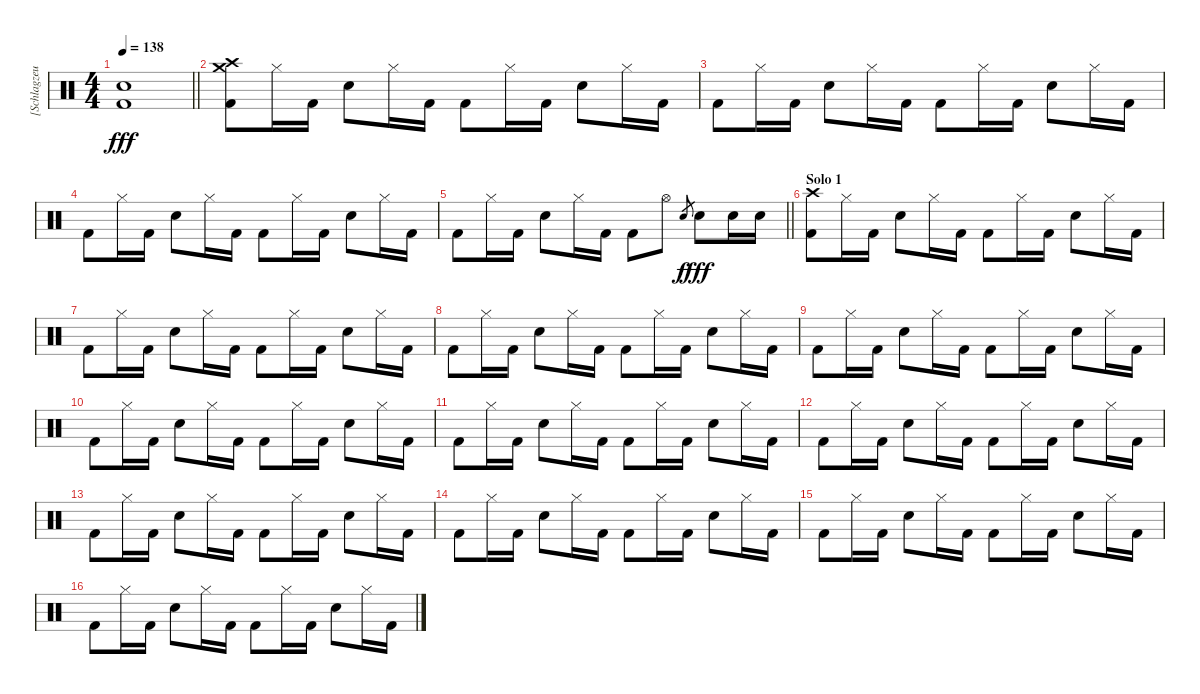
\track ("[Schlagzeug]" "[Schlagzeu") {instrument percussion}
\staff {score}
\articulation defaults
\ts (4 4)
\tempo 138
\clef neutral
\barLineRight lightlight
\ks c
("Electric Snare (hit)" "Kick (hit) 2").1{dy fff} |
("Crash high (hit)" "Crash medium (hit)" "Kick (hit) 2").8 "Hi-Hat (closed)".16 "Kick (hit) 2".16 "Electric Snare (hit)".8 "Hi-Hat (closed)".16 "Kick (hit) 2".16 "Kick (hit) 2".8 "Hi-Hat (closed)".16 "Kick (hit) 2".16 "Electric Snare (hit)".8 "Hi-Hat (closed)".16 "Kick (hit) 2".16 |
"Kick (hit) 2".8 "Hi-Hat (closed)".16 "Kick (hit) 2".16 "Electric Snare (hit)".8 "Hi-Hat (closed)".16 "Kick (hit) 2".16 "Kick (hit) 2".8 "Hi-Hat (closed)".16 "Kick (hit) 2".16 "Electric Snare (hit)".8 "Hi-Hat (closed)".16 "Kick (hit) 2".16 |
"Kick (hit) 2".8 "Hi-Hat (closed)".16 "Kick (hit) 2".16 "Electric Snare (hit)".8 "Hi-Hat (closed)".16 "Kick (hit) 2".16 "Kick (hit) 2".8 "Hi-Hat (closed)".16 "Kick (hit) 2".16 "Electric Snare (hit)".8 "Hi-Hat (closed)".16 "Kick (hit) 2".16 |
\barLineRight lightlight "Kick (hit) 2".8 "Hi-Hat (closed)".16 "Kick (hit) 2".16 "Electric Snare (hit)".8 "Hi-Hat (closed)".16 "Kick (hit) 2".16 "Kick (hit) 2".8 "Hi-Hat (open)".8 "Electric Snare (hit)".8{gr dy f} "Electric Snare (hit)".8{dy fff} "Electric Snare (hit)".16 "Electric Snare (hit)".16
|
\section ("" "Solo 1")
("Crash high (hit)" "Kick (hit) 2").8 "Hi-Hat (closed)".16 "Kick (hit) 2".16 "Electric Snare (hit)".8 "Hi-Hat (closed)".16 "Kick (hit) 2".16 "Kick (hit) 2".8 "Hi-Hat (closed)".16 "Kick (hit) 2".16 "Electric Snare (hit)".8 "Hi-Hat (closed)".16 "Kick (hit) 2".16 |
"Kick (hit) 2".8 "Hi-Hat (closed)".16 "Kick (hit) 2".16 "Electric Snare (hit)".8 "Hi-Hat (closed)".16 "Kick (hit) 2".16 "Kick (hit) 2".8 "Hi-Hat (closed)".16 "Kick (hit) 2".16 "Electric Snare (hit)".8 "Hi-Hat (closed)".16 "Kick (hit) 2".16 |
"Kick (hit) 2".8 "Hi-Hat (closed)".16 "Kick (hit) 2".16 "Electric Snare (hit)".8 "Hi-Hat (closed)".16 "Kick (hit) 2".16 "Kick (hit) 2".8 "Hi-Hat (closed)".16 "Kick (hit) 2".16 "Electric Snare (hit)".8 "Hi-Hat (closed)".16 "Kick (hit) 2".16 |
"Kick (hit) 2".8 "Hi-Hat (closed)".16 "Kick (hit) 2".16 "Electric Snare (hit)".8 "Hi-Hat (closed)".16 "Kick (hit) 2".16 "Kick (hit) 2".8 "Hi-Hat (closed)".16 "Kick (hit) 2".16 "Electric Snare (hit)".8 "Hi-Hat (closed)".16 "Kick (hit) 2".16 |
"Kick (hit) 2".8 "Hi-Hat (closed)".16 "Kick (hit) 2".16 "Electric Snare (hit)".8 "Hi-Hat (closed)".16 "Kick (hit) 2".16 "Kick (hit) 2".8 "Hi-Hat (closed)".16 "Kick (hit) 2".16 "Electric Snare (hit)".8 "Hi-Hat (closed)".16 "Kick (hit) 2".16 |
"Kick (hit) 2".8 "Hi-Hat (closed)".16 "Kick (hit) 2".16 "Electric Snare (hit)".8 "Hi-Hat (closed)".16 "Kick (hit) 2".16 "Kick (hit) 2".8 "Hi-Hat (closed)".16 "Kick (hit) 2".16 "Electric Snare (hit)".8 "Hi-Hat (closed)".16 "Kick (hit) 2".16 |
"Kick (hit) 2".8 "Hi-Hat (closed)".16 "Kick (hit) 2".16 "Electric Snare (hit)".8 "Hi-Hat (closed)".16 "Kick (hit) 2".16 "Kick (hit) 2".8 "Hi-Hat (closed)".16 "Kick (hit) 2".16 "Electric Snare (hit)".8 "Hi-Hat (closed)".16 "Kick (hit) 2".16 |
"Kick (hit) 2".8 "Hi-Hat (closed)".16 "Kick (hit) 2".16 "Electric Snare (hit)".8 "Hi-Hat (closed)".16 "Kick (hit) 2".16 "Kick (hit) 2".8 "Hi-Hat (closed)".16 "Kick (hit) 2".16 "Electric Snare (hit)".8 "Hi-Hat (closed)".16 "Kick (hit) 2".16 |
"Kick (hit) 2".8 "Hi-Hat (closed)".16 "Kick (hit) 2".16 "Electric Snare (hit)".8 "Hi-Hat (closed)".16 "Kick (hit) 2".16 "Kick (hit) 2".8 "Hi-Hat (closed)".16 "Kick (hit) 2".16 "Electric Snare (hit)".8 "Hi-Hat (closed)".16 "Kick (hit) 2".16 |
"Kick (hit) 2".8 "Hi-Hat (closed)".16 "Kick (hit) 2".16 "Electric Snare (hit)".8 "Hi-Hat (closed)".16 "Kick (hit) 2".16 "Kick (hit) 2".8 "Hi-Hat (closed)".16 "Kick (hit) 2".16 "Electric Snare (hit)".8 "Hi-Hat (closed)".16 "Kick (hit) 2".16 |
"Kick (hit) 2".8 "Hi-Hat (closed)".16 "Kick (hit) 2".16 "Electric Snare (hit)".8 "Hi-Hat (closed)".16 "Kick (hit) 2".16 "Kick (hit) 2".8 "Hi-Hat (closed)".16 "Kick (hit) 2".16 "Electric Snare (hit)".8 "Hi-Hat (closed)".16 "Kick (hit) 2".16
